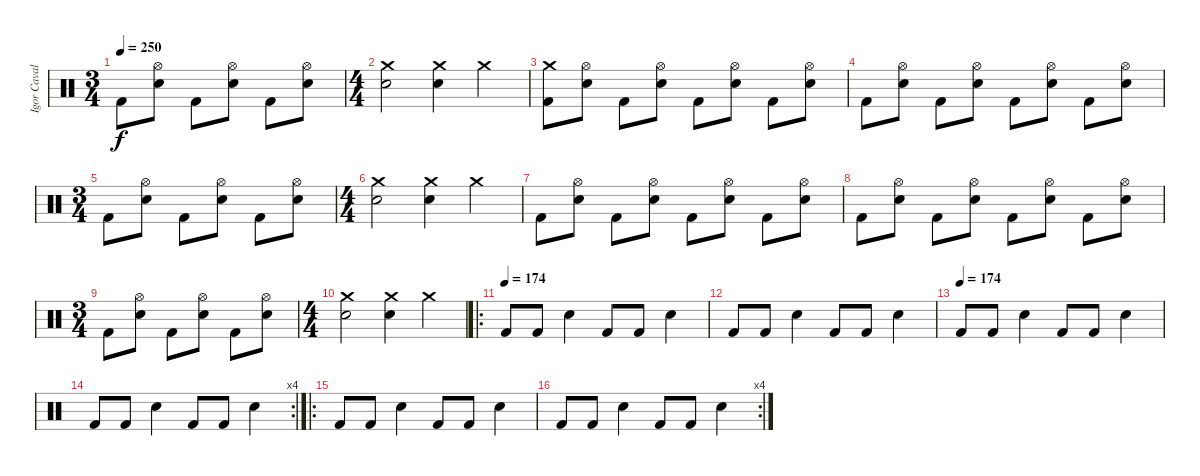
\track ("Igor Cavalera" "Igor Caval") {solo instrument percussion}
\staff {score}
\articulation defaults
\ts (3 4)
\tempo 250
\clef neutral
\ks c "Kick (hit) 2".8{dy f}
("Electric Snare (hit)" "Hi-Hat (open)").8 "Kick (hit) 2".8 ("Electric Snare (hit)" "Hi-Hat (open)").8 "Kick (hit) 2".8 ("Electric Snare (hit)" "Hi-Hat (open)").8 |
\ts (4 4)
("Crash medium (hit)" "Electric Snare (hit)").2 ("Crash medium (hit)" "Electric Snare (hit)").4 "Crash medium (hit)".4 |
("Kick (hit) 2" "Crash medium (hit)").8 ("Electric Snare (hit)" "Hi-Hat (open)").8 "Kick (hit) 2".8 ("Electric Snare (hit)" "Hi-Hat (open)").8 "Kick (hit) 2".8 ("Electric Snare (hit)" "Hi-Hat (open)").8 "Kick (hit) 2".8 ("Electric Snare (hit)" "Hi-Hat (open)").8 |
"Kick (hit) 2".8 ("Electric Snare (hit)" "Hi-Hat (open)").8 "Kick (hit) 2".8 ("Electric Snare (hit)" "Hi-Hat (open)").8 "Kick (hit) 2".8 ("Electric Snare (hit)" "Hi-Hat (open)").8 "Kick (hit) 2".8 ("Electric Snare (hit)" "Hi-Hat (open)").8 |
\ts (3 4)
"Kick (hit) 2".8 ("Electric Snare (hit)" "Hi-Hat (open)").8 "Kick (hit) 2".8 ("Electric Snare (hit)" "Hi-Hat (open)").8 "Kick (hit) 2".8 ("Electric Snare (hit)" "Hi-Hat (open)").8 |
\ts (4 4)
("Crash medium (hit)" "Electric Snare (hit)").2 ("Crash medium (hit)" "Electric Snare (hit)").4 "Crash medium (hit)".4 |
"Kick (hit) 2".8 ("Electric Snare (hit)" "Hi-Hat (open)").8 "Kick (hit) 2".8 ("Electric Snare (hit)" "Hi-Hat (open)").8 "Kick (hit) 2".8 ("Electric Snare (hit)" "Hi-Hat (open)").8 "Kick (hit) 2".8 ("Electric Snare (hit)" "Hi-Hat (open)").8 |
"Kick (hit) 2".8 ("Electric Snare (hit)" "Hi-Hat (open)").8 "Kick (hit) 2".8 ("Electric Snare (hit)" "Hi-Hat (open)").8 "Kick (hit) 2".8 ("Electric Snare (hit)" "Hi-Hat (open)").8 "Kick (hit) 2".8 ("Electric Snare (hit)" "Hi-Hat (open)").8 |
\ts (3 4)
"Kick (hit) 2".8 ("Electric Snare (hit)" "Hi-Hat (open)").8 "Kick (hit) 2".8 ("Electric Snare (hit)" "Hi-Hat (open)").8 "Kick (hit) 2".8 ("Electric Snare (hit)" "Hi-Hat (open)").8 |
\ts (4 4)
("Crash medium (hit)" "Electric Snare (hit)").2 ("Crash medium (hit)" "Electric Snare (hit)").4 "Crash medium (hit)".4 |
\ro
\tempo (174)
"Kick (hit) 2".8 "Kick (hit) 2".8 "Snare (hit) 2".4 "Kick (hit) 2".8 "Kick (hit) 2".8 "Snare (hit) 2".4 |
"Kick (hit) 2".8 "Kick (hit) 2".8 "Snare (hit) 2".4 "Kick (hit) 2".8 "Kick (hit) 2".8 "Snare (hit) 2".4 |
\tempo (174)
"Kick (hit) 2".8 "Kick (hit) 2".8 "Snare (hit) 2".4 "Kick (hit) 2".8 "Kick (hit) 2".8 "Snare (hit) 2".4 |
\rc 4 "Kick (hit) 2".8 "Kick (hit) 2".8 "Snare (hit) 2".4 "Kick (hit) 2".8 "Kick (hit) 2".8 "Snare (hit) 2".4
|
\ro "Kick (hit) 2".8 "Kick (hit) 2".8 "Snare (hit) 2".4 "Kick (hit) 2".8 "Kick (hit) 2".8 "Snare (hit) 2".4
|
\rc 4 "Kick (hit) 2".8 "Kick (hit) 2".8 "Snare (hit) 2".4 "Kick (hit) 2".8 "Kick (hit) 2".8 "Snare (hit) 2".4
